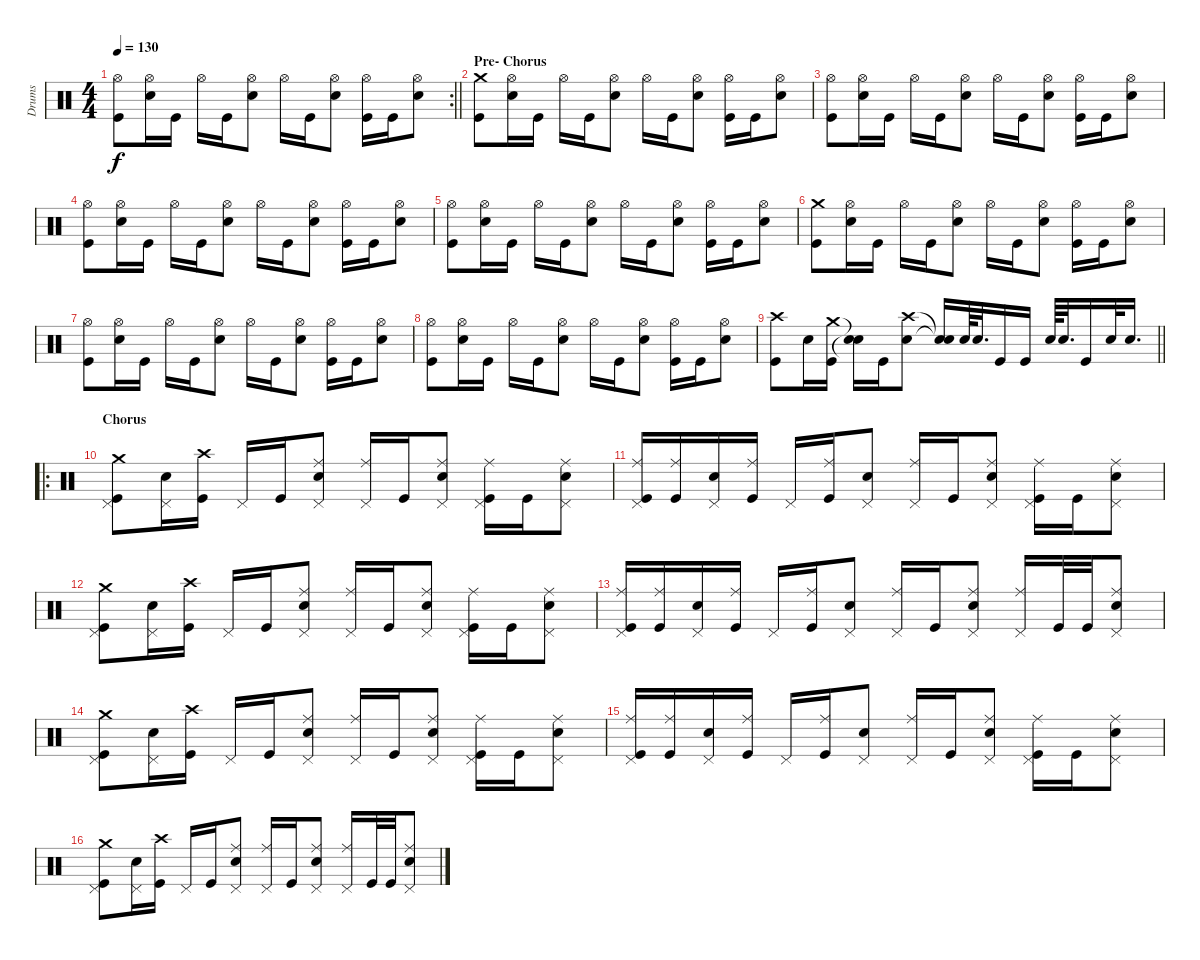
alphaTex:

\track ("Drums" "Drums") {instrument percussion}
\staff {score}
\articulation defaults
\rc 2
\ts (4 4)
\tempo 130
\clef neutral
\barLineRight lightlight
\ks c
("Hi-Hat (open)" "Kick (hit)").8{dy f} ("Hi-Hat (open)" "Snare (hit) 2").16 "Kick (hit)".16 "Hi-Hat (open)".16 "Kick (hit)".16 ("Hi-Hat (open)" "Snare (hit) 2").8 "Hi-Hat (open)".16 "Kick (hit)".16 ("Hi-Hat (open)" "Snare (hit) 2").8 ("Hi-Hat (open)" "Kick (hit)").16 "Kick (hit)".16 ("Hi-Hat (open)" "Snare (hit) 2").8 |
\section ("" "Pre- Chorus")
("Crash medium (hit)" "Kick (hit)").8 ("Hi-Hat (open)" "Snare (hit) 2").16 "Kick (hit)".16 "Hi-Hat (open)".16 "Kick (hit)".16 ("Hi-Hat (open)" "Snare (hit) 2").8 "Hi-Hat (open)".16 "Kick (hit)".16 ("Hi-Hat (open)" "Snare (hit) 2").8 ("Hi-Hat (open)" "Kick (hit)").16 "Kick (hit)".16 ("Hi-Hat (open)" "Snare (hit) 2").8 |
("Hi-Hat (open)" "Kick (hit)").8 ("Hi-Hat (open)" "Snare (hit) 2").16 "Kick (hit)".16 "Hi-Hat (open)".16 "Kick (hit)".16 ("Hi-Hat (open)" "Snare (hit) 2").8 "Hi-Hat (open)".16 "Kick (hit)".16 ("Hi-Hat (open)" "Snare (hit) 2").8 ("Hi-Hat (open)" "Kick (hit)").16 "Kick (hit)".16 ("Hi-Hat (open)" "Snare (hit) 2").8 |
("Hi-Hat (open)" "Kick (hit)").8 ("Hi-Hat (open)" "Snare (hit) 2").16 "Kick (hit)".16 "Hi-Hat (open)".16 "Kick (hit)".16 ("Hi-Hat (open)" "Snare (hit) 2").8 "Hi-Hat (open)".16 "Kick (hit)".16 ("Hi-Hat (open)" "Snare (hit) 2").8 ("Hi-Hat (open)" "Kick (hit)").16 "Kick (hit)".16 ("Hi-Hat (open)" "Snare (hit) 2").8 |
("Hi-Hat (open)" "Kick (hit)").8 ("Hi-Hat (open)" "Snare (hit) 2").16 "Kick (hit)".16 "Hi-Hat (open)".16 "Kick (hit)".16 ("Hi-Hat (open)" "Snare (hit) 2").8 "Hi-Hat (open)".16 "Kick (hit)".16 ("Hi-Hat (open)" "Snare (hit) 2").8 ("Hi-Hat (open)" "Kick (hit)").16 "Kick (hit)".16 ("Hi-Hat (open)" "Snare (hit) 2").8 |
("Crash medium (hit)" "Kick (hit)").8 ("Hi-Hat (open)" "Snare (hit) 2").16 "Kick (hit)".16 "Hi-Hat (open)".16 "Kick (hit)".16 ("Hi-Hat (open)" "Snare (hit) 2").8 "Hi-Hat (open)".16 "Kick (hit)".16 ("Hi-Hat (open)" "Snare (hit) 2").8 ("Hi-Hat (open)" "Kick (hit)").16 "Kick (hit)".16 ("Hi-Hat (open)" "Snare (hit) 2").8 |
("Hi-Hat (open)" "Kick (hit)").8 ("Hi-Hat (open)" "Snare (hit) 2").16 "Kick (hit)".16 "Hi-Hat (open)".16 "Kick (hit)".16 ("Hi-Hat (open)" "Snare (hit) 2").8 "Hi-Hat (open)".16 "Kick (hit)".16 ("Hi-Hat (open)" "Snare (hit) 2").8 ("Hi-Hat (open)" "Kick (hit)").16 "Kick (hit)".16 ("Hi-Hat (open)" "Snare (hit) 2").8 |
("Hi-Hat (open)" "Kick (hit)").8 ("Hi-Hat (open)" "Snare (hit) 2").16 "Kick (hit)".16 "Hi-Hat (open)".16 "Kick (hit)".16 ("Hi-Hat (open)" "Snare (hit) 2").8 "Hi-Hat (open)".16 "Kick (hit)".16 ("Hi-Hat (open)" "Snare (hit) 2").8 ("Hi-Hat (open)" "Kick (hit)").16 "Kick (hit)".16 ("Hi-Hat (open)" "Snare (hit) 2").8 |
\barLineRight lightlight
("Crash high (hit)" "Kick (hit)").8 "Snare (hit) 2".16 ("Crash medium (hit)" "Kick (hit)").16 ("Snare (hit)"{t} "Snare (hit)"{t}).16 "Kick (hit)".16 ("Crash high (hit)" "Snare (hit) 2").8 ("Snare (hit)"{t} "Snare (hit)"{t}).16 "Snare (hit) 2".64 "Snare (hit) 2".32{d} "Kick (hit)".16 "Kick (hit)".16 "Snare (hit) 2".64 "Snare (hit) 2".32{d} "Kick (hit)".16 "Snare (hit) 2".32 "Snare (hit) 2".16{d} |
\ro
\section ("" "Chorus")
("Crash medium (hit)" "Pedal Hi-Hat (hit)" "Kick (hit)").8 ("Snare (hit) 2" "Pedal Hi-Hat (hit)").16 ("Crash high (hit)" "Kick (hit)").16 "Pedal Hi-Hat (hit)".16 "Kick (hit)".16 ("Ride (middle)" "Snare (hit) 2" "Pedal Hi-Hat (hit)").8 ("Ride (middle)" "Pedal Hi-Hat (hit)").16 "Kick (hit)".16 ("Ride (middle)" "Snare (hit) 2" "Pedal Hi-Hat (hit)").8 ("Ride (middle)" "Pedal Hi-Hat (hit)" "Kick (hit)").16 "Kick (hit)".16 ("Ride (middle)" "Snare (hit) 2" "Pedal Hi-Hat (hit)").8 |
("Ride (middle)" "Pedal Hi-Hat (hit)" "Kick (hit)").16 ("Ride (middle)" "Kick (hit)").16 ("Snare (hit) 2" "Pedal Hi-Hat (hit)").16 ("Ride (middle)" "Kick (hit)").16 "Pedal Hi-Hat (hit)".16 ("Ride (middle)" "Kick (hit)").16 ("Snare (hit) 2" "Pedal Hi-Hat (hit)").8 ("Ride (middle)" "Pedal Hi-Hat (hit)").16 "Kick (hit)".16 ("Ride (middle)" "Snare (hit) 2" "Pedal Hi-Hat (hit)").8 ("Ride (middle)" "Pedal Hi-Hat (hit)" "Kick (hit)").16 "Kick (hit)".16 ("Ride (middle)" "Snare (hit) 2" "Pedal Hi-Hat (hit)").8 |
("Crash medium (hit)" "Pedal Hi-Hat (hit)" "Kick (hit)").8 ("Snare (hit) 2" "Pedal Hi-Hat (hit)").16 ("Crash high (hit)" "Kick (hit)").16 "Pedal Hi-Hat (hit)".16 "Kick (hit)".16 ("Ride (middle)" "Snare (hit) 2" "Pedal Hi-Hat (hit)").8 ("Ride (middle)" "Pedal Hi-Hat (hit)").16 "Kick (hit)".16 ("Ride (middle)" "Snare (hit) 2" "Pedal Hi-Hat (hit)").8 ("Ride (middle)" "Pedal Hi-Hat (hit)" "Kick (hit)").16 "Kick (hit)".16 ("Ride (middle)" "Snare (hit) 2" "Pedal Hi-Hat (hit)").8 |
("Ride (middle)" "Pedal Hi-Hat (hit)" "Kick (hit)").16 ("Ride (middle)" "Kick (hit)").16 ("Snare (hit) 2" "Pedal Hi-Hat (hit)").16 ("Ride (middle)" "Kick (hit)").16 "Pedal Hi-Hat (hit)".16 ("Ride (middle)" "Kick (hit)").16 ("Snare (hit) 2" "Pedal Hi-Hat (hit)").8 ("Ride (middle)" "Pedal Hi-Hat (hit)").16 "Kick (hit)".16 ("Ride (middle)" "Snare (hit) 2" "Pedal Hi-Hat (hit)").8 ("Ride (middle)" "Pedal Hi-Hat (hit)").16 "Kick (hit)".32 "Kick (hit)".32 ("Ride (middle)" "Snare (hit) 2" "Pedal Hi-Hat (hit)").8 |
("Crash medium (hit)" "Pedal Hi-Hat (hit)" "Kick (hit)").8 ("Snare (hit) 2" "Pedal Hi-Hat (hit)").16 ("Crash high (hit)" "Kick (hit)").16 "Pedal Hi-Hat (hit)".16 "Kick (hit)".16 ("Ride (middle)" "Snare (hit) 2" "Pedal Hi-Hat (hit)").8 ("Ride (middle)" "Pedal Hi-Hat (hit)").16 "Kick (hit)".16 ("Ride (middle)" "Snare (hit) 2" "Pedal Hi-Hat (hit)").8 ("Ride (middle)" "Pedal Hi-Hat (hit)" "Kick (hit)").16 "Kick (hit)".16 ("Ride (middle)" "Snare (hit) 2" "Pedal Hi-Hat (hit)").8 |
("Ride (middle)" "Pedal Hi-Hat (hit)" "Kick (hit)").16 ("Ride (middle)" "Kick (hit)").16 ("Snare (hit) 2" "Pedal Hi-Hat (hit)").16 ("Ride (middle)" "Kick (hit)").16 "Pedal Hi-Hat (hit)".16 ("Ride (middle)" "Kick (hit)").16 ("Snare (hit) 2" "Pedal Hi-Hat (hit)").8 ("Ride (middle)" "Pedal Hi-Hat (hit)").16 "Kick (hit)".16 ("Ride (middle)" "Snare (hit) 2" "Pedal Hi-Hat (hit)").8 ("Ride (middle)" "Pedal Hi-Hat (hit)" "Kick (hit)").16 "Kick (hit)".16 ("Ride (middle)" "Snare (hit) 2" "Pedal Hi-Hat (hit)").8 |
("Crash medium (hit)" "Pedal Hi-Hat (hit)" "Kick (hit)").8 ("Snare (hit) 2" "Pedal Hi-Hat (hit)").16 ("Crash high (hit)" "Kick (hit)").16 "Pedal Hi-Hat (hit)".16 "Kick (hit)".16 ("Ride (middle)" "Snare (hit) 2" "Pedal Hi-Hat (hit)").8 ("Ride (middle)" "Pedal Hi-Hat (hit)").16 "Kick (hit)".16 ("Ride (middle)" "Snare (hit) 2" "Pedal Hi-Hat (hit)").8 ("Ride (middle)" "Pedal Hi-Hat (hit)").16 "Kick (hit)".32 "Kick (hit)".32 ("Ride (middle)" "Snare (hit) 2" "Pedal Hi-Hat (hit)").8
